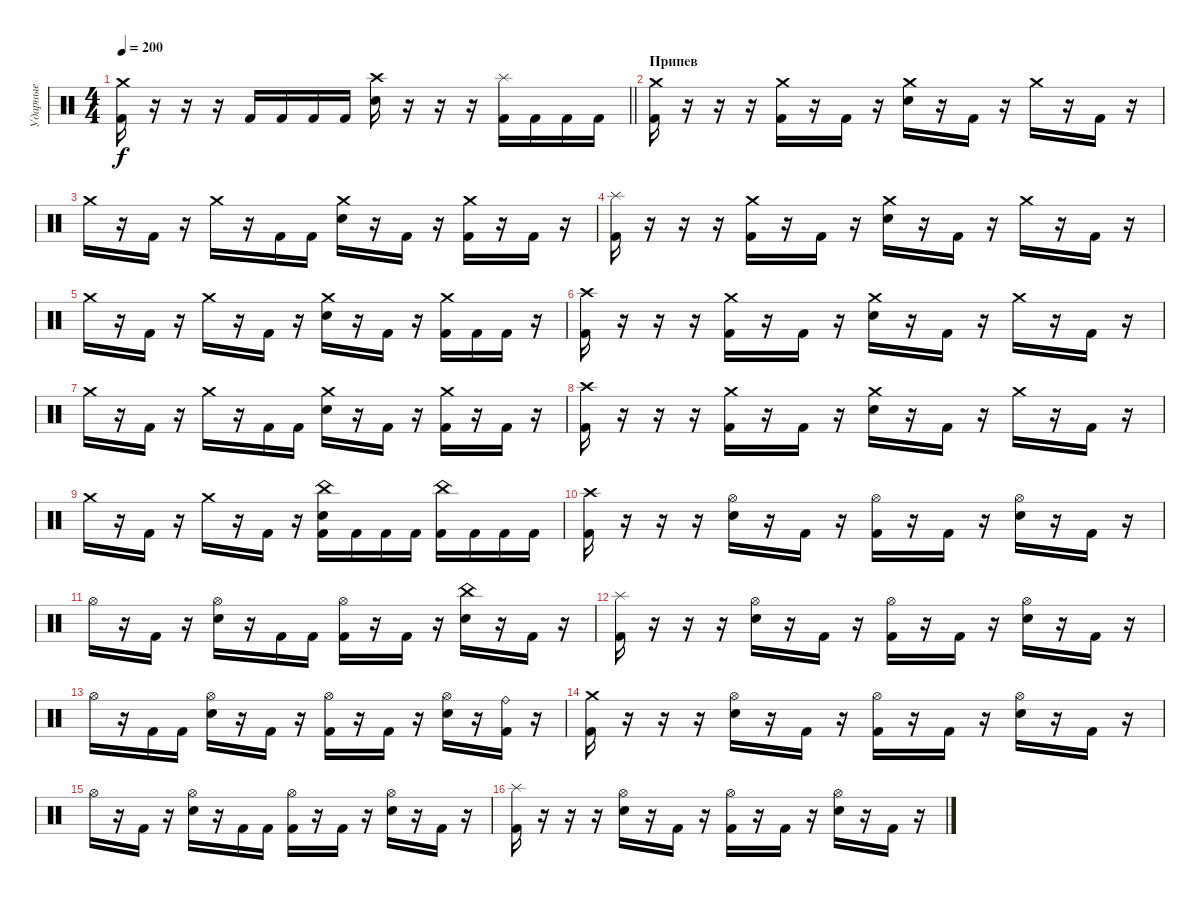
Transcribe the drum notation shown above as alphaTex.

\track ("Ударные" "Ударные") {instrument percussion}
\staff {score}
\articulation defaults
\ts (4 4)
\tempo 200
\clef neutral
\barLineRight lightlight
\ks c
("Kick (hit) 2" "Crash medium (hit)").16{dy f} r.16 r.16 r.16 "Kick (hit) 2".16 "Kick (hit) 2".16 "Kick (hit) 2".16 "Kick (hit) 2".16 ("Electric Snare (hit)" "Crash high (hit)").16 r.16 r.16 r.16 ("Kick (hit) 2" "Splash (hit)").16 "Kick (hit) 2".16 "Kick (hit) 2".16 "Kick (hit) 2".16 |
\section ("" "Припев")
("Kick (hit) 2" "Crash medium (hit)").16 r.16 r.16 r.16 ("Kick (hit) 2" "Crash medium (hit)").16 r.16 "Kick (hit) 2".16 r.16 ("Electric Snare (hit)" "Crash medium (hit)").16 r.16 "Kick (hit) 2".16 r.16 "Crash medium (hit)".16 r.16 "Kick (hit) 2".16 r.16 |
"Crash medium (hit)".16 r.16 "Kick (hit) 2".16 r.16 "Crash medium (hit)".16 r.16 "Kick (hit) 2".16 "Kick (hit) 2".16 ("Electric Snare (hit)" "Crash medium (hit)").16 r.16 "Kick (hit) 2".16 r.16 ("Kick (hit) 2" "Crash medium (hit)").16 r.16 "Kick (hit) 2".16 r.16 |
("Kick (hit) 2" "Splash (hit)").16 r.16 r.16 r.16 ("Kick (hit) 2" "Crash medium (hit)").16 r.16 "Kick (hit) 2".16 r.16 ("Electric Snare (hit)" "Crash medium (hit)").16 r.16 "Kick (hit) 2".16 r.16 "Crash medium (hit)".16 r.16 "Kick (hit) 2".16 r.16 |
"Crash medium (hit)".16 r.16 "Kick (hit) 2".16 r.16 "Crash medium (hit)".16 r.16 "Kick (hit) 2".16 r.16 ("Electric Snare (hit)" "Crash medium (hit)").16 r.16 "Kick (hit) 2".16 r.16 ("Kick (hit) 2" "Crash medium (hit)").16 "Kick (hit) 2".16 "Kick (hit) 2".16 r.16 |
("Kick (hit) 2" "Crash high (hit)").16 r.16 r.16 r.16 ("Kick (hit) 2" "Crash medium (hit)").16 r.16 "Kick (hit) 2".16 r.16 ("Electric Snare (hit)" "Crash medium (hit)").16 r.16 "Kick (hit) 2".16 r.16 "Crash medium (hit)".16 r.16 "Kick (hit) 2".16 r.16 |
"Crash medium (hit)".16 r.16 "Kick (hit) 2".16 r.16 "Crash medium (hit)".16 r.16 "Kick (hit) 2".16 "Kick (hit) 2".16 ("Electric Snare (hit)" "Crash medium (hit)").16 r.16 "Kick (hit) 2".16 r.16 ("Kick (hit) 2" "Crash medium (hit)").16 r.16 "Kick (hit) 2".16 r.16 |
("Kick (hit) 2" "Crash high (hit)").16 r.16 r.16 r.16 ("Kick (hit) 2" "Crash medium (hit)").16 r.16 "Kick (hit) 2".16 r.16 ("Electric Snare (hit)" "Crash medium (hit)").16 r.16 "Kick (hit) 2".16 r.16 "Crash medium (hit)".16 r.16 "Kick (hit) 2".16 r.16 |
"Crash medium (hit)".16 r.16 "Kick (hit) 2".16 r.16 "Crash medium (hit)".16 r.16 "Kick (hit) 2".16 r.16 ("Kick (hit) 2" "Electric Snare (hit)" "China (hit)").16 "Kick (hit) 2".16 "Kick (hit) 2".16 "Kick (hit) 2".16 ("Kick (hit) 2" "China (hit)").16 "Kick (hit) 2".16 "Kick (hit) 2".16 "Kick (hit) 2".16 |
("Kick (hit) 2" "Crash high (hit)").16 r.16 r.16 r.16 ("Electric Snare (hit)" "Hi-Hat (open)").16 r.16 "Kick (hit) 2".16 r.16 ("Kick (hit) 2" "Hi-Hat (open)").16 r.16 "Kick (hit) 2".16 r.16 ("Electric Snare (hit)" "Hi-Hat (open)").16 r.16 "Kick (hit) 2".16 r.16 |
"Hi-Hat (open)".16 r.16 "Kick (hit) 2".16 r.16 ("Electric Snare (hit)" "Hi-Hat (open)").16 r.16 "Kick (hit) 2".16 "Kick (hit) 2".16 ("Kick (hit) 2" "Hi-Hat (open)").16 r.16 "Kick (hit) 2".16 r.16 ("Electric Snare (hit)" "China (hit)").16 r.16 "Kick (hit) 2".16 r.16 |
("Kick (hit) 2" "Splash (hit)").16 r.16 r.16 r.16 ("Electric Snare (hit)" "Hi-Hat (open)").16 r.16 "Kick (hit) 2".16 r.16 ("Kick (hit) 2" "Hi-Hat (open)").16 r.16 "Kick (hit) 2".16 r.16 ("Electric Snare (hit)" "Hi-Hat (open)").16 r.16 "Kick (hit) 2".16 r.16 |
"Hi-Hat (open)".16 r.16 "Kick (hit) 2".16 "Kick (hit) 2".16 ("Electric Snare (hit)" "Hi-Hat (open)").16 r.16 "Kick (hit) 2".16 r.16 ("Kick (hit) 2" "Hi-Hat (open)").16 r.16 "Kick (hit) 2".16 r.16 ("Electric Snare (hit)" "Hi-Hat (open)").16 r.16 ("Kick (hit) 2" "Ride (bell)").16 r.16 |
("Kick (hit) 2" "Crash medium (hit)").16 r.16 r.16 r.16 ("Electric Snare (hit)" "Hi-Hat (open)").16 r.16 "Kick (hit) 2".16 r.16 ("Kick (hit) 2" "Hi-Hat (open)").16 r.16 "Kick (hit) 2".16 r.16 ("Electric Snare (hit)" "Hi-Hat (open)").16 r.16 "Kick (hit) 2".16 r.16 |
"Hi-Hat (open)".16 r.16 "Kick (hit) 2".16 r.16 ("Electric Snare (hit)" "Hi-Hat (open)").16 r.16 "Kick (hit) 2".16 "Kick (hit) 2".16 ("Kick (hit) 2" "Hi-Hat (open)").16 r.16 "Kick (hit) 2".16 r.16 ("Electric Snare (hit)" "Hi-Hat (open)").16 r.16 "Kick (hit) 2".16 r.16 |
("Kick (hit) 2" "Splash (hit)").16 r.16 r.16 r.16 ("Electric Snare (hit)" "Hi-Hat (open)").16 r.16 "Kick (hit) 2".16 r.16 ("Kick (hit) 2" "Hi-Hat (open)").16 r.16 "Kick (hit) 2".16 r.16 ("Electric Snare (hit)" "Hi-Hat (open)").16 r.16 "Kick (hit) 2".16 r.16
